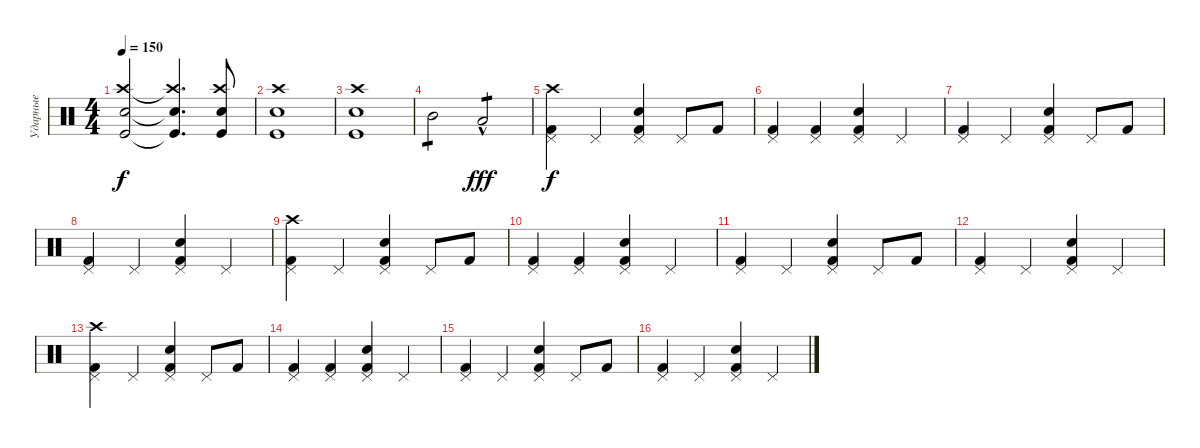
\track ("Ударные" "Ударные") {instrument percussion}
\staff {score}
\articulation defaults
\ts (4 4)
\tempo 150
\clef neutral
\ks c
("Kick (hit)" "Crash high (hit)" "Electric Snare (hit)").2{dy f} ("Kick (hit)"{t} "Crash high (hit)"{t} "Electric Snare (hit)"{t}).4{d} ("Kick (hit)" "Crash high (hit)" "Electric Snare (hit)").8 |
("Kick (hit)" "Crash high (hit)" "Electric Snare (hit)").1 |
("Kick (hit)" "Crash high (hit)" "Electric Snare (hit)").1 |
"Mid Tom (hit)".2{tp 1} "Low Tom (hit)"{hac}.2{tp 1 dy fff} |
("Kick (hit) 2" "Crash high (hit)" "Pedal Hi-Hat (hit)").4{dy f} "Pedal Hi-Hat (hit)".4 ("Kick (hit) 2" "Snare (hit) 2" "Pedal Hi-Hat (hit)").4 "Pedal Hi-Hat (hit)".8 "Kick (hit) 2".8 |
("Kick (hit) 2" "Pedal Hi-Hat (hit)").4 ("Kick (hit) 2" "Pedal Hi-Hat (hit)").4 ("Kick (hit) 2" "Snare (hit) 2" "Pedal Hi-Hat (hit)").4 "Pedal Hi-Hat (hit)".4 |
("Kick (hit) 2" "Pedal Hi-Hat (hit)").4 "Pedal Hi-Hat (hit)".4 ("Kick (hit) 2" "Snare (hit) 2" "Pedal Hi-Hat (hit)").4 "Pedal Hi-Hat (hit)".8 "Kick (hit) 2".8 |
("Kick (hit) 2" "Pedal Hi-Hat (hit)").4 "Pedal Hi-Hat (hit)".4 ("Kick (hit) 2" "Snare (hit) 2" "Pedal Hi-Hat (hit)").4 "Pedal Hi-Hat (hit)".4 |
("Kick (hit) 2" "Crash high (hit)" "Pedal Hi-Hat (hit)").4 "Pedal Hi-Hat (hit)".4 ("Kick (hit) 2" "Snare (hit) 2" "Pedal Hi-Hat (hit)").4 "Pedal Hi-Hat (hit)".8 "Kick (hit) 2".8 |
("Kick (hit) 2" "Pedal Hi-Hat (hit)").4 ("Kick (hit) 2" "Pedal Hi-Hat (hit)").4 ("Kick (hit) 2" "Snare (hit) 2" "Pedal Hi-Hat (hit)").4 "Pedal Hi-Hat (hit)".4 |
("Kick (hit) 2" "Pedal Hi-Hat (hit)").4 "Pedal Hi-Hat (hit)".4 ("Kick (hit) 2" "Snare (hit) 2" "Pedal Hi-Hat (hit)").4 "Pedal Hi-Hat (hit)".8 "Kick (hit) 2".8 |
("Kick (hit) 2" "Pedal Hi-Hat (hit)").4 "Pedal Hi-Hat (hit)".4 ("Kick (hit) 2" "Snare (hit) 2" "Pedal Hi-Hat (hit)").4 "Pedal Hi-Hat (hit)".4 |
("Kick (hit) 2" "Crash high (hit)" "Pedal Hi-Hat (hit)").4 "Pedal Hi-Hat (hit)".4 ("Kick (hit) 2" "Snare (hit) 2" "Pedal Hi-Hat (hit)").4 "Pedal Hi-Hat (hit)".8 "Kick (hit) 2".8 |
("Kick (hit) 2" "Pedal Hi-Hat (hit)").4 ("Kick (hit) 2" "Pedal Hi-Hat (hit)").4 ("Kick (hit) 2" "Snare (hit) 2" "Pedal Hi-Hat (hit)").4 "Pedal Hi-Hat (hit)".4 |
("Kick (hit) 2" "Pedal Hi-Hat (hit)").4 "Pedal Hi-Hat (hit)".4 ("Kick (hit) 2" "Snare (hit) 2" "Pedal Hi-Hat (hit)").4 "Pedal Hi-Hat (hit)".8 "Kick (hit) 2".8 |
("Kick (hit) 2" "Pedal Hi-Hat (hit)").4 "Pedal Hi-Hat (hit)".4 ("Kick (hit) 2" "Snare (hit) 2" "Pedal Hi-Hat (hit)").4 "Pedal Hi-Hat (hit)".4
